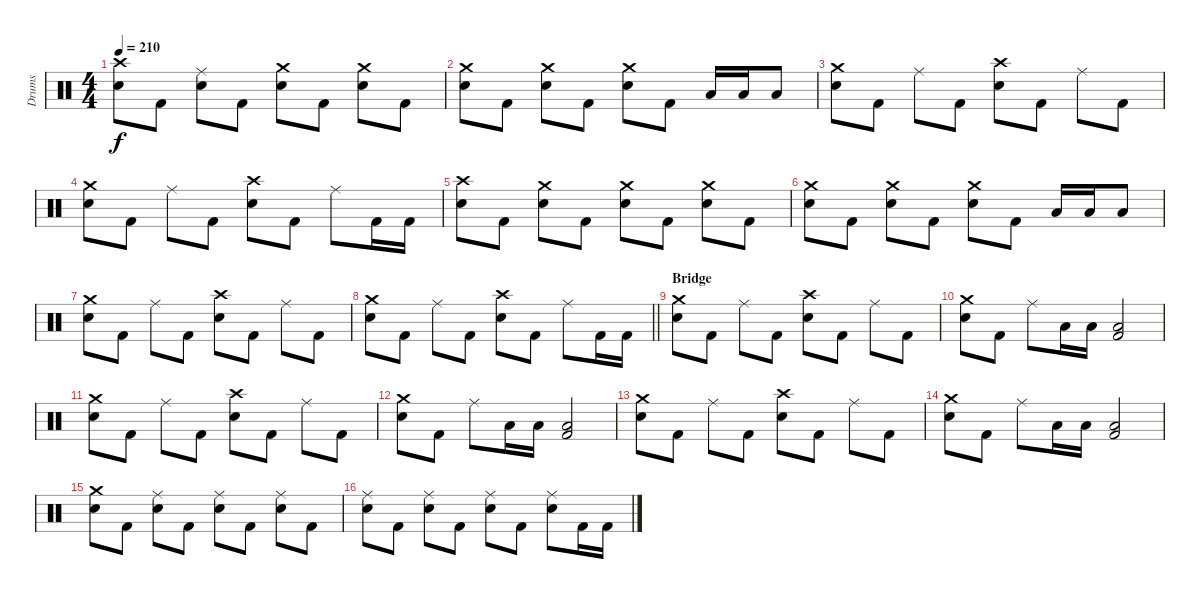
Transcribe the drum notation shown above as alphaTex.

\track ("Drums" "Drums") {instrument percussion}
\staff {score}
\articulation defaults
\ts (4 4)
\tempo 210
\clef neutral
\ks c
("Crash high (hit)" "Electric Snare (hit)").8{dy f} "Kick (hit) 2".8 ("Ride (middle)" "Electric Snare (hit)").8 "Kick (hit) 2".8 ("Crash medium (hit)" "Electric Snare (hit)").8 "Kick (hit) 2".8 ("Crash medium (hit)" "Electric Snare (hit)").8 "Kick (hit) 2".8 |
("Crash medium (hit)" "Electric Snare (hit)").8 "Kick (hit) 2".8 ("Crash medium (hit)" "Electric Snare (hit)").8 "Kick (hit) 2".8 ("Crash medium (hit)" "Electric Snare (hit)").8 "Kick (hit) 2".8 "Low Tom (hit)".16 "Low Tom (hit)".16 "Low Tom (hit)".8 |
("Crash medium (hit)" "Electric Snare (hit)").8 "Kick (hit) 2".8 "Ride (middle)".8 "Kick (hit) 2".8 ("Crash high (hit)" "Electric Snare (hit)").8 "Kick (hit) 2".8 "Ride (middle)".8 "Kick (hit) 2".8 |
("Crash medium (hit)" "Electric Snare (hit)").8 "Kick (hit) 2".8 "Ride (middle)".8 "Kick (hit) 2".8 ("Crash high (hit)" "Electric Snare (hit)").8 "Kick (hit) 2".8 "Ride (middle)".8 "Kick (hit) 2".16 "Kick (hit) 2".16 |
("Crash high (hit)" "Electric Snare (hit)").8 "Kick (hit) 2".8 ("Crash medium (hit)" "Electric Snare (hit)").8 "Kick (hit) 2".8 ("Crash medium (hit)" "Electric Snare (hit)").8 "Kick (hit) 2".8 ("Crash medium (hit)" "Electric Snare (hit)").8 "Kick (hit) 2".8 |
("Crash medium (hit)" "Electric Snare (hit)").8 "Kick (hit) 2".8 ("Crash medium (hit)" "Electric Snare (hit)").8 "Kick (hit) 2".8 ("Crash medium (hit)" "Electric Snare (hit)").8 "Kick (hit) 2".8 "Low Floor Tom (hit)".16 "Low Floor Tom (hit)".16 "Low Floor Tom (hit)".8 |
("Crash medium (hit)" "Electric Snare (hit)").8 "Kick (hit) 2".8 "Ride (middle)".8 "Kick (hit) 2".8 ("Crash high (hit)" "Electric Snare (hit)").8 "Kick (hit) 2".8 "Ride (middle)".8 "Kick (hit) 2".8 |
\barLineRight lightlight
("Crash medium (hit)" "Electric Snare (hit)").8 "Kick (hit) 2".8 "Ride (middle)".8 "Kick (hit) 2".8 ("Crash high (hit)" "Electric Snare (hit)").8 "Kick (hit) 2".8 "Ride (middle)".8 "Kick (hit) 2".16 "Kick (hit) 2".16 |
\section ("" "Bridge")
("Crash medium (hit)" "Electric Snare (hit)").8 "Kick (hit) 2".8 "Ride (middle)".8 "Kick (hit) 2".8 ("Crash high (hit)" "Electric Snare (hit)").8 "Kick (hit) 2".8 "Ride (middle)".8 "Kick (hit) 2".8 |
("Crash medium (hit)" "Electric Snare (hit)").8 "Kick (hit) 2".8 "Ride (middle)".8 "Low Floor Tom (hit)".16 "Low Floor Tom (hit)".16 ("Low Floor Tom (hit)" "Kick (hit) 2").2 |
("Crash medium (hit)" "Electric Snare (hit)").8 "Kick (hit) 2".8 "Ride (middle)".8 "Kick (hit) 2".8 ("Crash high (hit)" "Electric Snare (hit)").8 "Kick (hit) 2".8 "Ride (middle)".8 "Kick (hit) 2".8 |
("Crash medium (hit)" "Electric Snare (hit)").8 "Kick (hit) 2".8 "Ride (middle)".8 "Low Floor Tom (hit)".16 "Low Floor Tom (hit)".16 ("Low Floor Tom (hit)" "Kick (hit) 2").2 |
("Crash medium (hit)" "Electric Snare (hit)").8 "Kick (hit) 2".8 "Ride (middle)".8 "Kick (hit) 2".8 ("Crash high (hit)" "Electric Snare (hit)").8 "Kick (hit) 2".8 "Ride (middle)".8 "Kick (hit) 2".8 |
("Crash medium (hit)" "Electric Snare (hit)").8 "Kick (hit) 2".8 "Ride (middle)".8 "Low Floor Tom (hit)".16 "Low Floor Tom (hit)".16 ("Low Floor Tom (hit)" "Kick (hit) 2").2 |
("Crash medium (hit)" "Electric Snare (hit)").8 "Kick (hit) 2".8 ("Ride (middle)" "Electric Snare (hit)").8 "Kick (hit) 2".8 ("Ride (middle)" "Electric Snare (hit)").8 "Kick (hit) 2".8 ("Ride (middle)" "Electric Snare (hit)").8 "Kick (hit) 2".8 |
("Ride (middle)" "Electric Snare (hit)").8 "Kick (hit) 2".8 ("Ride (middle)" "Electric Snare (hit)").8 "Kick (hit) 2".8 ("Ride (middle)" "Electric Snare (hit)").8 "Kick (hit) 2".8 ("Ride (middle)" "Electric Snare (hit)").8 "Kick (hit) 2".16 "Kick (hit) 2".16
